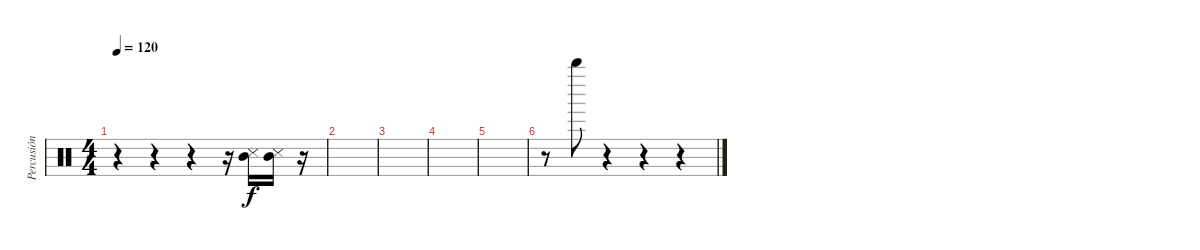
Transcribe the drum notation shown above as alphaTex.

\track ("Percusión" "Percusión") {instrument percussion}
\staff {score}
\articulation defaults
\ts (4 4)
\tempo 120
\clef neutral
\ks c
r.4{dy f} r.4 r.4 r.16 ("Snare (side stick) 3" "Mid Tom (hit)").16 ("Snare (side stick) 3" "Mid Tom (hit)").16 r.16 |
|
|
|
|
r.8 "Whistle high (hit)".8 r.4 r.4 r.4
